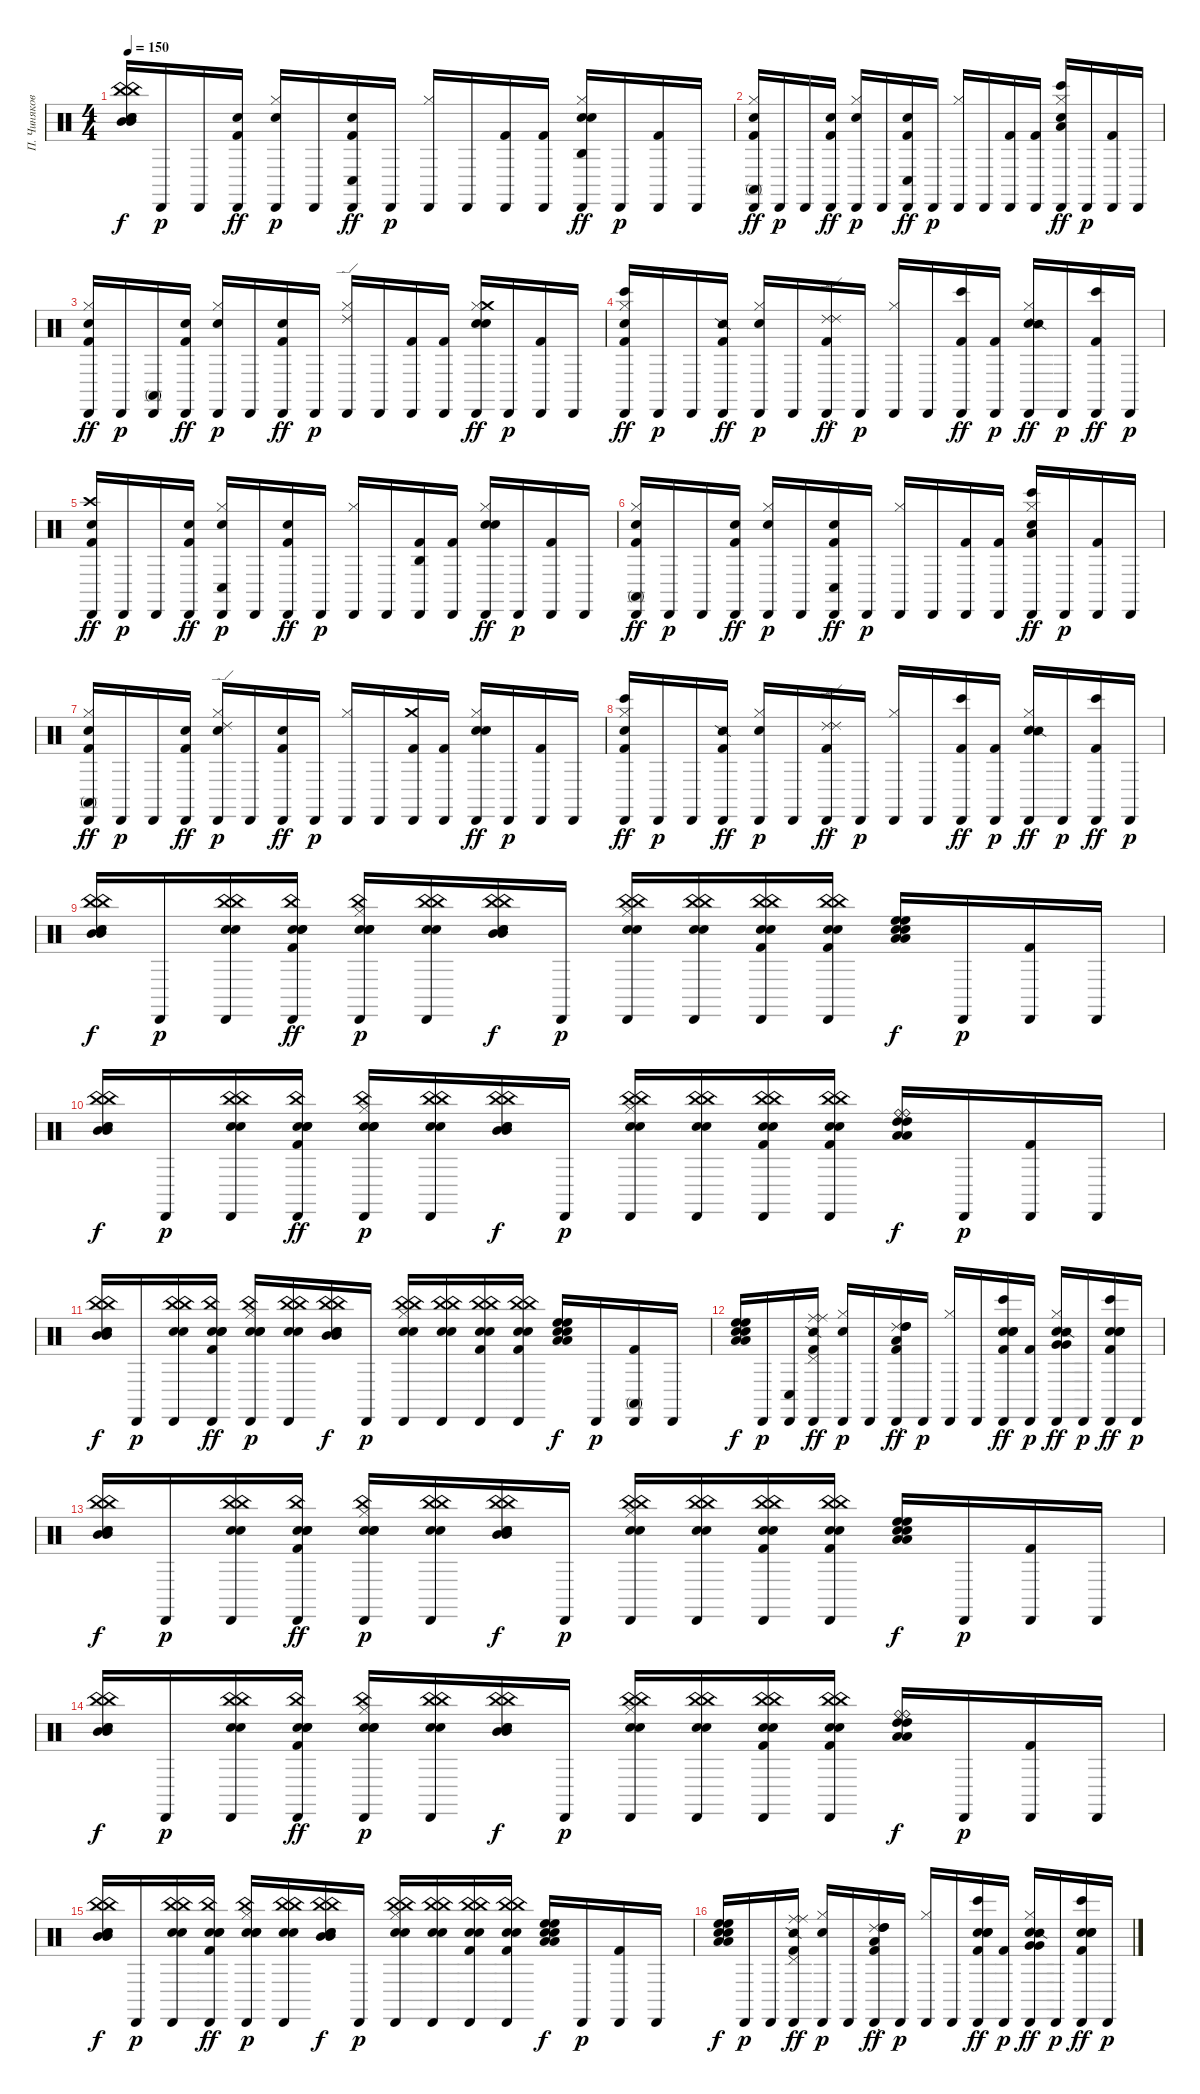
\track ("П. Чиняков" "П. Чиняков") {instrument percussion}
\staff {score}
\articulation defaults
\ts (4 4)
\tempo 150
\clef neutral
\ks c
("China (hit)" "Mid Tom (hit)" "Electric Snare (hit)" "China (hit)" "Mid Tom (hit)" "Electric Snare (hit)").16{dy f} "Cabasa (hit)".16{dy p} "Cabasa (hit)".16 ("Cabasa (hit)" "Kick (hit) 2" "Snare (hit) 2").16{dy ff} ("Hi-Hat (closed)" "Cabasa (hit)" "Snare (hit) 2").16{dy p} "Cabasa (hit)".16 ("Cabasa (hit)" "Kick (hit) 2" "Electric Snare (hit)" "Conga low (hit)").16{dy ff} "Cabasa (hit)".16{dy p} ("Hi-Hat (closed)" "Cabasa (hit)").16 "Cabasa (hit)".16 ("Cabasa (hit)" "Kick (hit) 2").16 ("Cabasa (hit)" "Kick (hit) 2").16 ("Hi-Hat (closed)" "Cabasa (hit)" "Snare (hit) 2" "Snare (hit) 2" "Agogo high (hit)").16{dy ff} "Cabasa (hit)".16{dy p} ("Cabasa (hit)" "Kick (hit) 2").16 "Cabasa (hit)".16 |
("Hi-Hat (closed)" "Cabasa (hit)" "Kick (hit) 2" "Electric Snare (hit)" "Conga high (mute)").16{dy ff} "Cabasa (hit)".16{dy p} "Cabasa (hit)".16 ("Cabasa (hit)" "Kick (hit) 2" "Snare (hit) 2").16{dy ff} ("Hi-Hat (closed)" "Cabasa (hit)" "Snare (hit) 2").16{dy p} "Cabasa (hit)".16 ("Cabasa (hit)" "Kick (hit) 2" "Electric Snare (hit)" "Conga low (hit)").16{dy ff} "Cabasa (hit)".16{dy p} ("Hi-Hat (closed)" "Cabasa (hit)").16 "Cabasa (hit)".16 ("Cabasa (hit)" "Kick (hit) 2").16 ("Cabasa (hit)" "Kick (hit) 2").16 ("Hi-Hat (closed)" "Cabasa (hit)" "Snare (hit) 2" "Low Floor Tom (hit)" "Bongo High (hit)").16{dy ff} "Cabasa (hit)".16{dy p} ("Cabasa (hit)" "Kick (hit) 2").16 "Cabasa (hit)".16 |
("Hi-Hat (closed)" "Cabasa (hit)" "Kick (hit) 2" "Electric Snare (hit)").16{dy ff} "Cabasa (hit)".16{dy p} ("Cabasa (hit)" "Conga high (mute)").16 ("Cabasa (hit)" "Kick (hit) 2" "Snare (hit) 2").16{dy ff} ("Hi-Hat (closed)" "Cabasa (hit)" "Snare (hit) 2").16{dy p} "Cabasa (hit)".16 ("Cabasa (hit)" "Kick (hit) 2" "Electric Snare (hit)").16{dy ff} "Cabasa (hit)".16{dy p} ("Hi-Hat (closed)" "Cabasa (hit)" "Ride (edge) 2").16 "Cabasa (hit)".16 ("Cabasa (hit)" "Kick (hit) 2").16 ("Cabasa (hit)" "Kick (hit) 2").16 ("Hi-Hat (closed)" "Cabasa (hit)" "Snare (hit) 2" "Snare (hit) 2" "Crash medium (hit)").16{dy ff} "Cabasa (hit)".16{dy p} ("Cabasa (hit)" "Kick (hit) 2").16 "Cabasa (hit)".16 |
("Hi-Hat (closed)" "Cabasa (hit)" "Kick (hit) 2" "Snare (hit) 2" "Bongo High (hit)").16{dy ff} "Cabasa (hit)".16{dy p} "Cabasa (hit)".16 ("Cabasa (hit)" "Kick (hit) 2" "Snare (side stick) 2").16{dy ff} ("Hi-Hat (closed)" "Cabasa (hit)" "Snare (hit) 2").16{dy p} "Cabasa (hit)".16 ("Cabasa (hit)" "Kick (hit) 2" "Ride (choke) 2" "Ride (edge) 2").16{dy ff} "Cabasa (hit)".16{dy p} ("Hi-Hat (closed)" "Cabasa (hit)").16 "Cabasa (hit)".16 ("Cabasa (hit)" "Kick (hit) 2" "Bongo High (hit)").16{dy ff} ("Cabasa (hit)" "Kick (hit) 2").16{dy p} ("Hi-Hat (closed)" "Cabasa (hit)" "Snare (hit) 2" "Snare (side stick) 2").16{dy ff} "Cabasa (hit)".16{dy p} ("Cabasa (hit)" "Kick (hit) 2" "Bongo High (hit)").16{dy ff} "Cabasa (hit)".16{dy p} |
("Cabasa (hit)" "Crash high (hit)" "Kick (hit) 2" "Electric Snare (hit)").16{dy ff} "Cabasa (hit)".16{dy p} "Cabasa (hit)".16 ("Cabasa (hit)" "Kick (hit) 2" "Snare (hit) 2").16{dy ff} ("Hi-Hat (closed)" "Cabasa (hit)" "Snare (hit) 2" "Conga low (hit)").16{dy p} "Cabasa (hit)".16 ("Cabasa (hit)" "Kick (hit) 2" "Electric Snare (hit)").16{dy ff} "Cabasa (hit)".16{dy p} ("Hi-Hat (closed)" "Cabasa (hit)").16 "Cabasa (hit)".16 ("Cabasa (hit)" "Kick (hit) 2" "Agogo high (hit)").16 ("Cabasa (hit)" "Kick (hit) 2").16 ("Hi-Hat (closed)" "Cabasa (hit)" "Snare (hit) 2" "Snare (hit) 2").16{dy ff} "Cabasa (hit)".16{dy p} ("Cabasa (hit)" "Kick (hit) 2").16 "Cabasa (hit)".16 |
("Hi-Hat (closed)" "Cabasa (hit)" "Kick (hit) 2" "Electric Snare (hit)" "Conga high (mute)").16{dy ff} "Cabasa (hit)".16{dy p} "Cabasa (hit)".16 ("Cabasa (hit)" "Kick (hit) 2" "Snare (hit) 2").16{dy ff} ("Hi-Hat (closed)" "Cabasa (hit)" "Snare (hit) 2").16{dy p} "Cabasa (hit)".16 ("Cabasa (hit)" "Kick (hit) 2" "Electric Snare (hit)" "Conga low (hit)").16{dy ff} "Cabasa (hit)".16{dy p} ("Hi-Hat (closed)" "Cabasa (hit)").16 "Cabasa (hit)".16 ("Cabasa (hit)" "Kick (hit) 2").16 ("Cabasa (hit)" "Kick (hit) 2").16 ("Hi-Hat (closed)" "Cabasa (hit)" "Snare (hit) 2" "Low Floor Tom (hit)" "Bongo High (hit)").16{dy ff} "Cabasa (hit)".16{dy p} ("Cabasa (hit)" "Kick (hit) 2").16 "Cabasa (hit)".16 |
("Hi-Hat (closed)" "Cabasa (hit)" "Kick (hit) 2" "Electric Snare (hit)" "Conga high (mute)").16{dy ff} "Cabasa (hit)".16{dy p} "Cabasa (hit)".16 ("Cabasa (hit)" "Kick (hit) 2" "Snare (hit) 2").16{dy ff} ("Hi-Hat (closed)" "Cabasa (hit)" "Snare (hit) 2" "Ride (edge) 2").16{dy p} "Cabasa (hit)".16 ("Cabasa (hit)" "Kick (hit) 2" "Electric Snare (hit)").16{dy ff} "Cabasa (hit)".16{dy p} ("Hi-Hat (closed)" "Cabasa (hit)").16 "Cabasa (hit)".16 ("Cabasa (hit)" "Kick (hit) 2" "Crash medium (hit)").16 ("Cabasa (hit)" "Kick (hit) 2").16 ("Hi-Hat (closed)" "Cabasa (hit)" "Snare (hit) 2" "Snare (hit) 2").16{dy ff} "Cabasa (hit)".16{dy p} ("Cabasa (hit)" "Kick (hit) 2").16 "Cabasa (hit)".16 |
("Hi-Hat (closed)" "Cabasa (hit)" "Kick (hit) 2" "Snare (hit) 2" "Bongo High (hit)").16{dy ff} "Cabasa (hit)".16{dy p} "Cabasa (hit)".16 ("Cabasa (hit)" "Kick (hit) 2" "Snare (side stick) 2").16{dy ff} ("Hi-Hat (closed)" "Cabasa (hit)" "Snare (hit) 2").16{dy p} "Cabasa (hit)".16 ("Cabasa (hit)" "Kick (hit) 2" "Ride (choke) 2" "Ride (edge) 2").16{dy ff} "Cabasa (hit)".16{dy p} ("Hi-Hat (closed)" "Cabasa (hit)").16 "Cabasa (hit)".16 ("Cabasa (hit)" "Kick (hit) 2" "Bongo High (hit)").16{dy ff} ("Cabasa (hit)" "Kick (hit) 2").16{dy p} ("Hi-Hat (closed)" "Cabasa (hit)" "Snare (hit) 2" "Snare (side stick) 2").16{dy ff} "Cabasa (hit)".16{dy p} ("Cabasa (hit)" "Kick (hit) 2" "Bongo High (hit)").16{dy ff} "Cabasa (hit)".16{dy p} |
("China (hit)" "Mid Tom (hit)" "Electric Snare (hit)" "China (hit)" "Mid Tom (hit)" "Electric Snare (hit)").16{dy f} "Cabasa (hit)".16{dy p} ("Electric Snare (hit)" "Electric Snare (hit)" "Cabasa (hit)" "China (hit)" "China (hit)").16 ("Electric Snare (hit)" "Electric Snare (hit)" "Cabasa (hit)" "Kick (hit) 2" "Snare (hit) 2" "China (hit)").16{dy ff} ("Electric Snare (hit)" "Electric Snare (hit)" "Hi-Hat (closed)" "Cabasa (hit)" "Snare (hit) 2" "China (hit)").16{dy p} ("Electric Snare (hit)" "Electric Snare (hit)" "Cabasa (hit)" "China (hit)" "China (hit)").16 ("China (hit)" "Mid Tom (hit)" "Electric Snare (hit)" "China (hit)" "Mid Tom (hit)" "Electric Snare (hit)").16{dy f} "Cabasa (hit)".16{dy p} ("Electric Snare (hit)" "Electric Snare (hit)" "Hi-Hat (closed)" "Cabasa (hit)" "China (hit)" "China (hit)").16 ("Electric Snare (hit)" "Electric Snare (hit)" "Cabasa (hit)" "China (hit)" "China (hit)").16 ("Electric Snare (hit)" "Electric Snare (hit)" "Cabasa (hit)" "Kick (hit) 2" "China (hit)" "China (hit)").16 ("Electric Snare (hit)" "Electric Snare (hit)" "Cabasa (hit)" "Kick (hit) 2" "China (hit)" "China (hit)").16 ("High Floor Tom (hit)" "Low Tom (hit)" "Snare (hit) 2" "High Floor Tom (hit)" "Low Tom (hit)" "Snare (hit) 2").16{dy f} "Cabasa (hit)".16{dy p} ("Cabasa (hit)" "Kick (hit) 2").16 "Cabasa (hit)".16 |
("China (hit)" "Mid Tom (hit)" "Electric Snare (hit)" "China (hit)" "Mid Tom (hit)" "Electric Snare (hit)").16{dy f} "Cabasa (hit)".16{dy p} ("Electric Snare (hit)" "Electric Snare (hit)" "Cabasa (hit)" "China (hit)" "China (hit)").16 ("Electric Snare (hit)" "Electric Snare (hit)" "Cabasa (hit)" "Kick (hit) 2" "Snare (hit) 2" "China (hit)").16{dy ff} ("Electric Snare (hit)" "Electric Snare (hit)" "Hi-Hat (closed)" "Cabasa (hit)" "Snare (hit) 2" "China (hit)").16{dy p} ("Electric Snare (hit)" "Electric Snare (hit)" "Cabasa (hit)" "China (hit)" "China (hit)").16 ("China (hit)" "Mid Tom (hit)" "Electric Snare (hit)" "China (hit)" "Mid Tom (hit)" "Electric Snare (hit)").16{dy f} "Cabasa (hit)".16{dy p} ("Electric Snare (hit)" "Electric Snare (hit)" "Hi-Hat (closed)" "Cabasa (hit)" "China (hit)" "China (hit)").16 ("Electric Snare (hit)" "Electric Snare (hit)" "Cabasa (hit)" "China (hit)" "China (hit)").16 ("Electric Snare (hit)" "Electric Snare (hit)" "Cabasa (hit)" "Kick (hit) 2" "China (hit)" "China (hit)").16 ("Electric Snare (hit)" "Electric Snare (hit)" "Cabasa (hit)" "Kick (hit) 2" "China (hit)" "China (hit)").16 ("Ride (bell)" "High Tom (hit)" "Low Floor Tom (hit)" "Ride (bell)" "High Tom (hit)" "Low Floor Tom (hit)").16{dy f} "Cabasa (hit)".16{dy p} ("Cabasa (hit)" "Kick (hit) 2").16 "Cabasa (hit)".16 |
("China (hit)" "Mid Tom (hit)" "Electric Snare (hit)" "China (hit)" "Mid Tom (hit)" "Electric Snare (hit)").16{dy f} "Cabasa (hit)".16{dy p} ("Electric Snare (hit)" "Electric Snare (hit)" "Cabasa (hit)" "China (hit)" "China (hit)").16 ("Electric Snare (hit)" "Electric Snare (hit)" "Cabasa (hit)" "Kick (hit) 2" "Snare (hit) 2" "China (hit)").16{dy ff} ("Electric Snare (hit)" "Electric Snare (hit)" "Hi-Hat (closed)" "Cabasa (hit)" "Snare (hit) 2" "China (hit)").16{dy p} ("Electric Snare (hit)" "Electric Snare (hit)" "Cabasa (hit)" "China (hit)" "China (hit)").16 ("China (hit)" "Mid Tom (hit)" "Electric Snare (hit)" "China (hit)" "Mid Tom (hit)" "Electric Snare (hit)").16{dy f} "Cabasa (hit)".16{dy p} ("Electric Snare (hit)" "Electric Snare (hit)" "Hi-Hat (closed)" "Cabasa (hit)" "China (hit)" "China (hit)").16 ("Electric Snare (hit)" "Electric Snare (hit)" "Cabasa (hit)" "China (hit)" "China (hit)").16 ("Electric Snare (hit)" "Electric Snare (hit)" "Cabasa (hit)" "Kick (hit) 2" "China (hit)" "China (hit)").16 ("Electric Snare (hit)" "Electric Snare (hit)" "Cabasa (hit)" "Kick (hit) 2" "China (hit)" "China (hit)").16 ("High Floor Tom (hit)" "Low Tom (hit)" "Snare (hit) 2" "High Floor Tom (hit)" "Low Tom (hit)" "Snare (hit) 2").16{dy f} "Cabasa (hit)".16{dy p} ("Cabasa (hit)" "Kick (hit) 2" "Conga high (mute)").16 "Cabasa (hit)".16 |
("High Floor Tom (hit)" "Low Tom (hit)" "Snare (hit) 2" "High Floor Tom (hit)" "Low Tom (hit)" "Snare (hit) 2").16{dy f} "Cabasa (hit)".16{dy p} ("Cabasa (hit)" "Conga low (hit)").16 ("Cabasa (hit)" "Kick (hit) 2" "Snare (side stick) 2" "Ride (middle)" "Pedal Hi-Hat (hit)" "Ride (middle)").16{dy ff} ("Hi-Hat (closed)" "Cabasa (hit)" "Snare (hit) 2").16{dy p} "Cabasa (hit)".16 ("Cabasa (hit)" "Kick (hit) 2" "Ride (choke) 2" "High Tom (hit)" "Low Floor Tom (hit)" "High Tom (hit)").16{dy ff} "Cabasa (hit)".16{dy p} ("Hi-Hat (closed)" "Cabasa (hit)").16 "Cabasa (hit)".16 ("Electric Snare (hit)" "Electric Snare (hit)" "Cabasa (hit)" "Kick (hit) 2" "Bongo High (hit)" "Electric Snare (hit)").16{dy ff} ("Cabasa (hit)" "Kick (hit) 2").16{dy p} ("Very Low Tom (hit)" "Very Low Tom (hit)" "Hi-Hat (closed)" "Cabasa (hit)" "Snare (hit) 2" "Snare (side stick) 2").16{dy ff} "Cabasa (hit)".16{dy p} ("Electric Snare (hit)" "Electric Snare (hit)" "Cabasa (hit)" "Kick (hit) 2" "Bongo High (hit)" "Electric Snare (hit)").16{dy ff} "Cabasa (hit)".16{dy p} |
("China (hit)" "Mid Tom (hit)" "Electric Snare (hit)" "China (hit)" "Mid Tom (hit)" "Electric Snare (hit)").16{dy f} "Cabasa (hit)".16{dy p} ("Electric Snare (hit)" "Electric Snare (hit)" "Cabasa (hit)" "China (hit)" "China (hit)").16 ("Electric Snare (hit)" "Electric Snare (hit)" "Cabasa (hit)" "Kick (hit) 2" "Snare (hit) 2" "China (hit)").16{dy ff} ("Electric Snare (hit)" "Electric Snare (hit)" "Hi-Hat (closed)" "Cabasa (hit)" "Snare (hit) 2" "China (hit)").16{dy p} ("Electric Snare (hit)" "Electric Snare (hit)" "Cabasa (hit)" "China (hit)" "China (hit)").16 ("China (hit)" "Mid Tom (hit)" "Electric Snare (hit)" "China (hit)" "Mid Tom (hit)" "Electric Snare (hit)").16{dy f} "Cabasa (hit)".16{dy p} ("Electric Snare (hit)" "Electric Snare (hit)" "Hi-Hat (closed)" "Cabasa (hit)" "China (hit)" "China (hit)").16 ("Electric Snare (hit)" "Electric Snare (hit)" "Cabasa (hit)" "China (hit)" "China (hit)").16 ("Electric Snare (hit)" "Electric Snare (hit)" "Cabasa (hit)" "Kick (hit) 2" "China (hit)" "China (hit)").16 ("Electric Snare (hit)" "Electric Snare (hit)" "Cabasa (hit)" "Kick (hit) 2" "China (hit)" "China (hit)").16 ("High Floor Tom (hit)" "Low Tom (hit)" "Snare (hit) 2" "High Floor Tom (hit)" "Low Tom (hit)" "Snare (hit) 2").16{dy f} "Cabasa (hit)".16{dy p} ("Cabasa (hit)" "Kick (hit) 2").16 "Cabasa (hit)".16 |
("China (hit)" "Mid Tom (hit)" "Electric Snare (hit)" "China (hit)" "Mid Tom (hit)" "Electric Snare (hit)").16{dy f} "Cabasa (hit)".16{dy p} ("Electric Snare (hit)" "Electric Snare (hit)" "Cabasa (hit)" "China (hit)" "China (hit)").16 ("Electric Snare (hit)" "Electric Snare (hit)" "Cabasa (hit)" "Kick (hit) 2" "Snare (hit) 2" "China (hit)").16{dy ff} ("Electric Snare (hit)" "Electric Snare (hit)" "Hi-Hat (closed)" "Cabasa (hit)" "Snare (hit) 2" "China (hit)").16{dy p} ("Electric Snare (hit)" "Electric Snare (hit)" "Cabasa (hit)" "China (hit)" "China (hit)").16 ("China (hit)" "Mid Tom (hit)" "Electric Snare (hit)" "China (hit)" "Mid Tom (hit)" "Electric Snare (hit)").16{dy f} "Cabasa (hit)".16{dy p} ("Electric Snare (hit)" "Electric Snare (hit)" "Hi-Hat (closed)" "Cabasa (hit)" "China (hit)" "China (hit)").16 ("Electric Snare (hit)" "Electric Snare (hit)" "Cabasa (hit)" "China (hit)" "China (hit)").16 ("Electric Snare (hit)" "Electric Snare (hit)" "Cabasa (hit)" "Kick (hit) 2" "China (hit)" "China (hit)").16 ("Electric Snare (hit)" "Electric Snare (hit)" "Cabasa (hit)" "Kick (hit) 2" "China (hit)" "China (hit)").16 ("Ride (bell)" "High Tom (hit)" "Low Floor Tom (hit)" "Ride (bell)" "High Tom (hit)" "Low Floor Tom (hit)").16{dy f} "Cabasa (hit)".16{dy p} ("Cabasa (hit)" "Kick (hit) 2").16 "Cabasa (hit)".16 |
("China (hit)" "Mid Tom (hit)" "Electric Snare (hit)" "China (hit)" "Mid Tom (hit)" "Electric Snare (hit)").16{dy f} "Cabasa (hit)".16{dy p} ("Electric Snare (hit)" "Electric Snare (hit)" "Cabasa (hit)" "China (hit)" "China (hit)").16 ("Electric Snare (hit)" "Electric Snare (hit)" "Cabasa (hit)" "Kick (hit) 2" "Snare (hit) 2" "China (hit)").16{dy ff} ("Electric Snare (hit)" "Electric Snare (hit)" "Hi-Hat (closed)" "Cabasa (hit)" "Snare (hit) 2" "China (hit)").16{dy p} ("Electric Snare (hit)" "Electric Snare (hit)" "Cabasa (hit)" "China (hit)" "China (hit)").16 ("China (hit)" "Mid Tom (hit)" "Electric Snare (hit)" "China (hit)" "Mid Tom (hit)" "Electric Snare (hit)").16{dy f} "Cabasa (hit)".16{dy p} ("Electric Snare (hit)" "Electric Snare (hit)" "Hi-Hat (closed)" "Cabasa (hit)" "China (hit)" "China (hit)").16 ("Electric Snare (hit)" "Electric Snare (hit)" "Cabasa (hit)" "China (hit)" "China (hit)").16 ("Electric Snare (hit)" "Electric Snare (hit)" "Cabasa (hit)" "Kick (hit) 2" "China (hit)" "China (hit)").16 ("Electric Snare (hit)" "Electric Snare (hit)" "Cabasa (hit)" "Kick (hit) 2" "China (hit)" "China (hit)").16 ("High Floor Tom (hit)" "Low Tom (hit)" "Snare (hit) 2" "High Floor Tom (hit)" "Low Tom (hit)" "Snare (hit) 2").16{dy f} "Cabasa (hit)".16{dy p} ("Cabasa (hit)" "Kick (hit) 2").16 "Cabasa (hit)".16 |
("High Floor Tom (hit)" "Low Tom (hit)" "Snare (hit) 2" "High Floor Tom (hit)" "Low Tom (hit)" "Snare (hit) 2").16{dy f} "Cabasa (hit)".16{dy p} "Cabasa (hit)".16 ("Cabasa (hit)" "Kick (hit) 2" "Snare (side stick) 2" "Ride (middle)" "Pedal Hi-Hat (hit)" "Ride (middle)").16{dy ff} ("Hi-Hat (closed)" "Cabasa (hit)" "Snare (hit) 2").16{dy p} "Cabasa (hit)".16 ("Cabasa (hit)" "Kick (hit) 2" "Ride (choke) 2" "High Tom (hit)" "Low Floor Tom (hit)" "High Tom (hit)").16{dy ff} "Cabasa (hit)".16{dy p} ("Hi-Hat (closed)" "Cabasa (hit)").16 "Cabasa (hit)".16 ("Electric Snare (hit)" "Electric Snare (hit)" "Cabasa (hit)" "Kick (hit) 2" "Bongo High (hit)" "Electric Snare (hit)").16{dy ff} ("Cabasa (hit)" "Kick (hit) 2").16{dy p} ("Very Low Tom (hit)" "Very Low Tom (hit)" "Hi-Hat (closed)" "Cabasa (hit)" "Snare (hit) 2" "Snare (side stick) 2").16{dy ff} "Cabasa (hit)".16{dy p} ("Electric Snare (hit)" "Electric Snare (hit)" "Cabasa (hit)" "Kick (hit) 2" "Bongo High (hit)" "Electric Snare (hit)").16{dy ff} "Cabasa (hit)".16{dy p}
